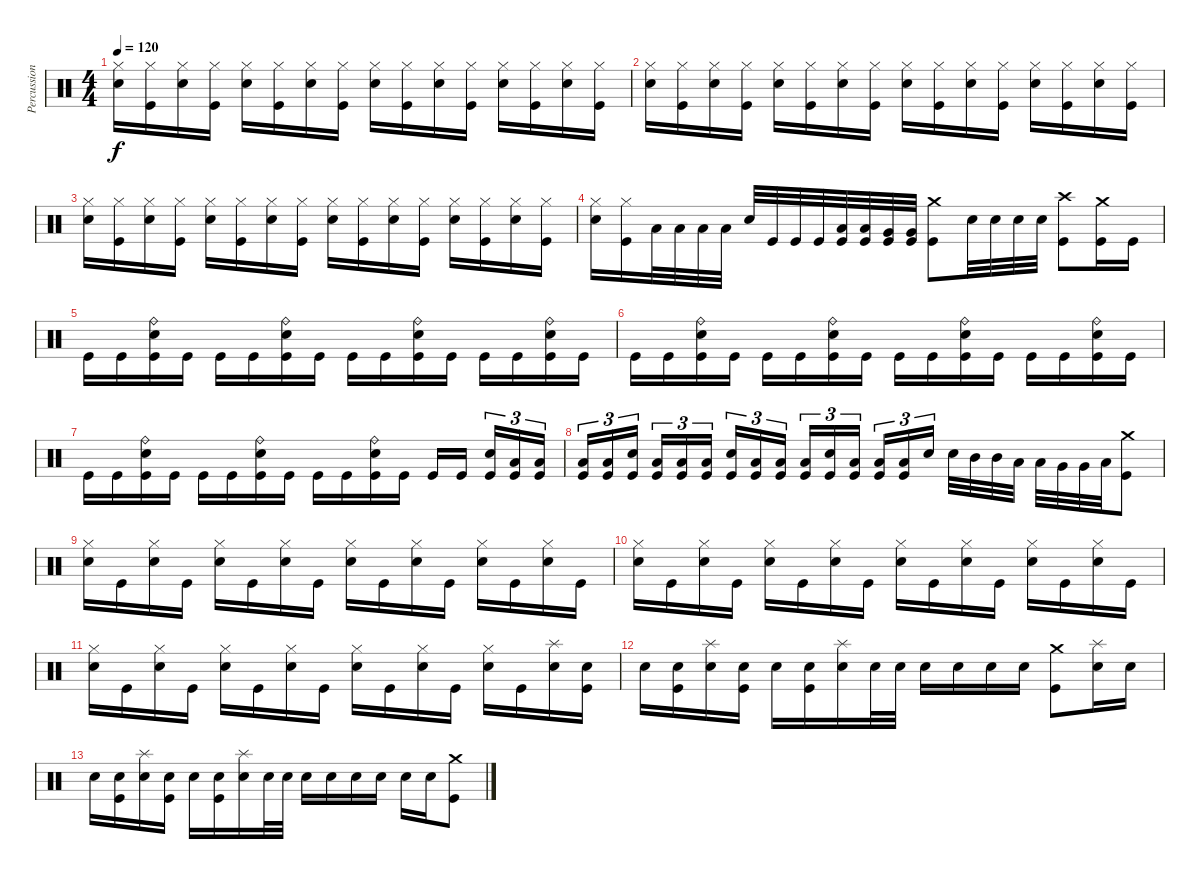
\track ("Percussions" "Percussion") {instrument percussion}
\staff {score}
\articulation defaults
\ts (4 4)
\tempo 120
\clef neutral
\ks c
("Electric Snare (hit)" "Hi-Hat (closed)").16{dy f} ("Kick (hit)" "Hi-Hat (closed)").16 ("Electric Snare (hit)" "Hi-Hat (closed)").16 ("Kick (hit)" "Hi-Hat (closed)").16 ("Electric Snare (hit)" "Hi-Hat (closed)").16 ("Kick (hit)" "Hi-Hat (closed)").16 ("Electric Snare (hit)" "Hi-Hat (closed)").16 ("Kick (hit)" "Hi-Hat (closed)").16 ("Electric Snare (hit)" "Hi-Hat (closed)").16 ("Kick (hit)" "Hi-Hat (closed)").16 ("Electric Snare (hit)" "Hi-Hat (closed)").16 ("Kick (hit)" "Hi-Hat (closed)").16 ("Electric Snare (hit)" "Hi-Hat (closed)").16 ("Kick (hit)" "Hi-Hat (closed)").16 ("Electric Snare (hit)" "Hi-Hat (closed)").16 ("Kick (hit)" "Hi-Hat (closed)").16 |
("Electric Snare (hit)" "Hi-Hat (closed)").16 ("Kick (hit)" "Hi-Hat (closed)").16 ("Electric Snare (hit)" "Hi-Hat (closed)").16 ("Kick (hit)" "Hi-Hat (closed)").16 ("Electric Snare (hit)" "Hi-Hat (closed)").16 ("Kick (hit)" "Hi-Hat (closed)").16 ("Electric Snare (hit)" "Hi-Hat (closed)").16 ("Kick (hit)" "Hi-Hat (closed)").16 ("Electric Snare (hit)" "Hi-Hat (closed)").16 ("Kick (hit)" "Hi-Hat (closed)").16 ("Electric Snare (hit)" "Hi-Hat (closed)").16 ("Kick (hit)" "Hi-Hat (closed)").16 ("Electric Snare (hit)" "Hi-Hat (closed)").16 ("Kick (hit)" "Hi-Hat (closed)").16 ("Electric Snare (hit)" "Hi-Hat (closed)").16 ("Kick (hit)" "Hi-Hat (closed)").16 |
("Electric Snare (hit)" "Hi-Hat (closed)").16 ("Kick (hit)" "Hi-Hat (closed)").16 ("Electric Snare (hit)" "Hi-Hat (closed)").16 ("Kick (hit)" "Hi-Hat (closed)").16 ("Electric Snare (hit)" "Hi-Hat (closed)").16 ("Kick (hit)" "Hi-Hat (closed)").16 ("Electric Snare (hit)" "Hi-Hat (closed)").16 ("Kick (hit)" "Hi-Hat (closed)").16 ("Electric Snare (hit)" "Hi-Hat (closed)").16 ("Kick (hit)" "Hi-Hat (closed)").16 ("Electric Snare (hit)" "Hi-Hat (closed)").16 ("Kick (hit)" "Hi-Hat (closed)").16 ("Electric Snare (hit)" "Hi-Hat (closed)").16 ("Kick (hit)" "Hi-Hat (closed)").16 ("Electric Snare (hit)" "Hi-Hat (closed)").16 ("Kick (hit)" "Hi-Hat (closed)").16 |
("Electric Snare (hit)" "Hi-Hat (closed)").16 ("Kick (hit)" "Hi-Hat (closed)").16 "Low Tom (hit)".32 "Low Tom (hit)".32 "Low Tom (hit)".32 "Low Tom (hit)".32 "Electric Snare (hit)".32 "Kick (hit)".32 "Kick (hit)".32 "Kick (hit)".32 ("Kick (hit)" "Low Tom (hit)").32 ("Kick (hit)" "Low Tom (hit)").32 ("Kick (hit)" "Very Low Tom (hit)").32 ("Kick (hit)" "Very Low Tom (hit)").32 ("Kick (hit)" "Crash medium (hit)").8 "Electric Snare (hit)".32 "Electric Snare (hit)".32 "Electric Snare (hit)".32 "Electric Snare (hit)".32 ("Kick (hit)" "Crash high (hit)").8 ("Kick (hit)" "Crash medium (hit)").16 "Kick (hit)".16 |
"Kick (hit)".16 "Kick (hit)".16 ("Kick (hit)" "Electric Snare (hit)" "Ride (bell)").16 "Kick (hit)".16 "Kick (hit)".16 "Kick (hit)".16 ("Kick (hit)" "Electric Snare (hit)" "Ride (bell)").16 "Kick (hit)".16 "Kick (hit)".16 "Kick (hit)".16 ("Kick (hit)" "Electric Snare (hit)" "Ride (bell)").16 "Kick (hit)".16 "Kick (hit)".16 "Kick (hit)".16 ("Kick (hit)" "Electric Snare (hit)" "Ride (bell)").16 "Kick (hit)".16 |
"Kick (hit)".16 "Kick (hit)".16 ("Kick (hit)" "Electric Snare (hit)" "Ride (bell)").16 "Kick (hit)".16 "Kick (hit)".16 "Kick (hit)".16 ("Kick (hit)" "Electric Snare (hit)" "Ride (bell)").16 "Kick (hit)".16 "Kick (hit)".16 "Kick (hit)".16 ("Kick (hit)" "Electric Snare (hit)" "Ride (bell)").16 "Kick (hit)".16 "Kick (hit)".16 "Kick (hit)".16 ("Kick (hit)" "Electric Snare (hit)" "Ride (bell)").16 "Kick (hit)".16 |
"Kick (hit)".16 "Kick (hit)".16 ("Kick (hit)" "Electric Snare (hit)" "Ride (bell)").16 "Kick (hit)".16 "Kick (hit)".16 "Kick (hit)".16 ("Kick (hit)" "Electric Snare (hit)" "Ride (bell)").16 "Kick (hit)".16 "Kick (hit)".16 "Kick (hit)".16 ("Kick (hit)" "Electric Snare (hit)" "Ride (bell)").16 "Kick (hit)".16 "Kick (hit)".16 "Kick (hit)".16 ("Kick (hit)" "Electric Snare (hit)").16{tu (3 2)} ("Kick (hit)" "Low Tom (hit)").16{tu (3 2)} ("Kick (hit)" "Low Tom (hit)").16{tu (3 2)} |
("Kick (hit)" "Low Tom (hit)").16{tu (3 2)} ("Kick (hit)" "Low Tom (hit)").16{tu (3 2)} ("Kick (hit)" "Electric Snare (hit)").16{tu (3 2)} ("Kick (hit)" "Low Tom (hit)").16{tu (3 2)} ("Kick (hit)" "Low Tom (hit)").16{tu (3 2)} ("Kick (hit)" "Low Tom (hit)").16{tu (3 2)} ("Kick (hit)" "Electric Snare (hit)").16{tu (3 2)} ("Kick (hit)" "Low Tom (hit)").16{tu (3 2)} ("Kick (hit)" "Low Tom (hit)").16{tu (3 2)} ("Kick (hit)" "Low Tom (hit)").16{tu (3 2)} ("Kick (hit)" "Electric Snare (hit)").16{tu (3 2)} ("Kick (hit)" "Low Tom (hit)").16{tu (3 2)} ("Kick (hit)" "Low Tom (hit)").16{tu (3 2)} ("Kick (hit)" "Low Tom (hit)").16{tu (3 2)} "Electric Snare (hit)".16{tu (3 2)} "Electric Snare (hit)".32 "Mid Tom (hit)".32 "Mid Tom (hit)".32 "Low Tom (hit)".32 "Low Tom (hit)".32 "Very Low Tom (hit)".32 "Very Low Tom (hit)".32 "Low Floor Tom (hit)".32 ("Kick (hit)" "Crash medium (hit)").8 |
("Electric Snare (hit)" "Hi-Hat (closed)").16 "Kick (hit)".16 ("Electric Snare (hit)" "Hi-Hat (closed)").16 "Kick (hit)".16 ("Electric Snare (hit)" "Hi-Hat (closed)").16 "Kick (hit)".16 ("Electric Snare (hit)" "Hi-Hat (closed)").16 "Kick (hit)".16 ("Electric Snare (hit)" "Hi-Hat (closed)").16 "Kick (hit)".16 ("Electric Snare (hit)" "Hi-Hat (closed)").16 "Kick (hit)".16 ("Electric Snare (hit)" "Hi-Hat (closed)").16 "Kick (hit)".16 ("Electric Snare (hit)" "Hi-Hat (closed)").16 "Kick (hit)".16 |
("Electric Snare (hit)" "Hi-Hat (closed)").16 "Kick (hit)".16 ("Electric Snare (hit)" "Hi-Hat (closed)").16 "Kick (hit)".16 ("Electric Snare (hit)" "Hi-Hat (closed)").16 "Kick (hit)".16 ("Electric Snare (hit)" "Hi-Hat (closed)").16 "Kick (hit)".16 ("Electric Snare (hit)" "Hi-Hat (closed)").16 "Kick (hit)".16 ("Electric Snare (hit)" "Hi-Hat (closed)").16 "Kick (hit)".16 ("Electric Snare (hit)" "Hi-Hat (closed)").16 "Kick (hit)".16 ("Electric Snare (hit)" "Hi-Hat (closed)").16 "Kick (hit)".16 |
("Electric Snare (hit)" "Hi-Hat (closed)").16 "Kick (hit)".16 ("Electric Snare (hit)" "Hi-Hat (closed)").16 "Kick (hit)".16 ("Electric Snare (hit)" "Hi-Hat (closed)").16 "Kick (hit)".16 ("Electric Snare (hit)" "Hi-Hat (closed)").16 "Kick (hit)".16 ("Electric Snare (hit)" "Hi-Hat (closed)").16 "Kick (hit)".16 ("Electric Snare (hit)" "Hi-Hat (closed)").16 "Kick (hit)".16 ("Electric Snare (hit)" "Hi-Hat (closed)").16 "Kick (hit)".16 ("Electric Snare (hit)" "Splash (hit)").16 ("Kick (hit)" "Electric Snare (hit)").16 |
"Electric Snare (hit)".16 ("Kick (hit)" "Electric Snare (hit)").16 ("Electric Snare (hit)" "Splash (hit)").16 ("Kick (hit)" "Electric Snare (hit)").16 "Electric Snare (hit)".16 ("Kick (hit)" "Electric Snare (hit)").16 ("Electric Snare (hit)" "Splash (hit)").16 "Electric Snare (hit)".32 "Electric Snare (hit)".32 "Electric Snare (hit)".16 "Electric Snare (hit)".16 "Electric Snare (hit)".16 "Electric Snare (hit)".16 ("Kick (hit)" "Crash medium (hit)").8 ("Electric Snare (hit)" "Splash (hit)").16 "Electric Snare (hit)".16 |
"Electric Snare (hit)".16 ("Kick (hit)" "Electric Snare (hit)").16 ("Electric Snare (hit)" "Splash (hit)").16 ("Kick (hit)" "Electric Snare (hit)").16 "Electric Snare (hit)".16 ("Kick (hit)" "Electric Snare (hit)").16 ("Electric Snare (hit)" "Splash (hit)").16 "Electric Snare (hit)".32 "Electric Snare (hit)".32 "Electric Snare (hit)".16 "Electric Snare (hit)".16 "Electric Snare (hit)".16 "Electric Snare (hit)".16 "Electric Snare (hit)".16 "Electric Snare (hit)".16 ("Kick (hit)" "Crash medium (hit)").8
